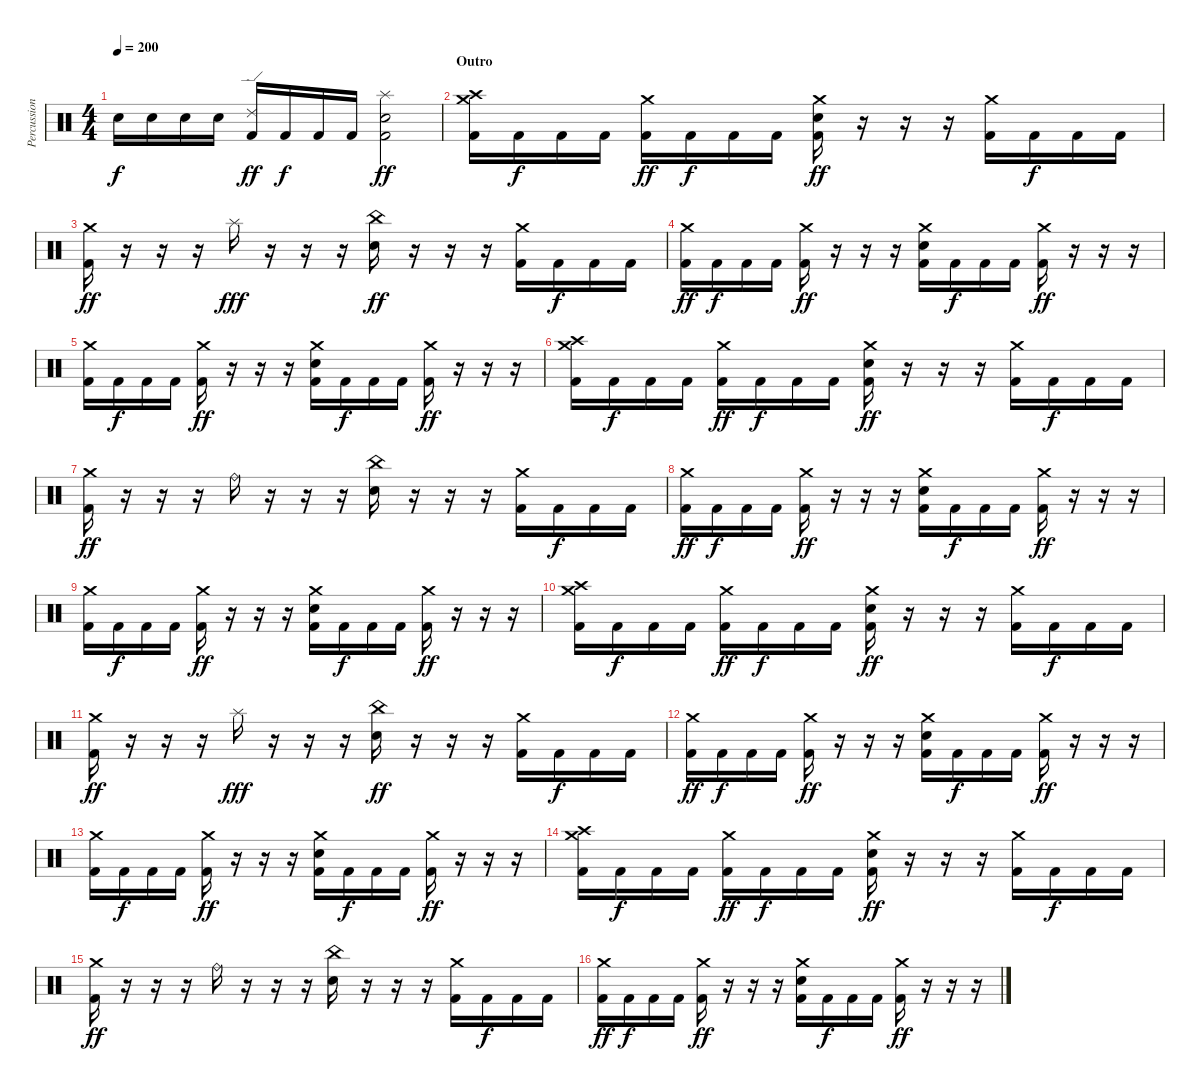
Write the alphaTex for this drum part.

\track ("Percussions" "Percussion") {instrument percussion}
\staff {score}
\articulation defaults
\ts (4 4)
\tempo 200
\clef neutral
\ks c "Electric Snare (hit)".16{dy f} "Electric Snare (hit)".16 "Electric Snare (hit)".16 "Electric Snare (hit)".16
("Ride (edge) 2" "Kick (hit) 2").16{dy ff} "Kick (hit) 2".16{dy f} "Kick (hit) 2".16 "Kick (hit) 2".16 ("Splash (hit)" "Electric Snare (hit)" "Kick (hit) 2").2{dy ff} |
\section ("" "Outro")
("Crash medium (hit)" "Crash high (hit)" "Kick (hit) 2").16 "Kick (hit) 2".16{dy f} "Kick (hit) 2".16 "Kick (hit) 2".16 ("Crash medium (hit)" "Kick (hit) 2").16{dy ff} "Kick (hit) 2".16{dy f} "Kick (hit) 2".16 "Kick (hit) 2".16 ("Crash medium (hit)" "Electric Snare (hit)" "Kick (hit) 2").16{dy ff} r.16 r.16 r.16 ("Crash medium (hit)" "Kick (hit) 2").16 "Kick (hit) 2".16{dy f} "Kick (hit) 2".16 "Kick (hit) 2".16 |
("Crash medium (hit)" "Kick (hit) 2").16{dy ff} r.16 r.16 r.16 "Splash (hit)".16{dy fff} r.16 r.16 r.16 ("China (hit)" "Electric Snare (hit)").16{dy ff} r.16 r.16 r.16 ("Crash medium (hit)" "Kick (hit) 2").16 "Kick (hit) 2".16{dy f} "Kick (hit) 2".16 "Kick (hit) 2".16 |
("Crash medium (hit)" "Kick (hit) 2").16{dy ff} "Kick (hit) 2".16{dy f} "Kick (hit) 2".16 "Kick (hit) 2".16 ("Crash medium (hit)" "Kick (hit) 2").16{dy ff} r.16 r.16 r.16 ("Crash medium (hit)" "Electric Snare (hit)" "Kick (hit) 2").16 "Kick (hit) 2".16{dy f} "Kick (hit) 2".16 "Kick (hit) 2".16 ("Crash medium (hit)" "Kick (hit) 2").16{dy ff} r.16 r.16 r.16 |
("Crash medium (hit)" "Kick (hit) 2").16 "Kick (hit) 2".16{dy f} "Kick (hit) 2".16 "Kick (hit) 2".16 ("Crash medium (hit)" "Kick (hit) 2").16{dy ff} r.16 r.16 r.16 ("Crash medium (hit)" "Electric Snare (hit)" "Kick (hit) 2").16 "Kick (hit) 2".16{dy f} "Kick (hit) 2".16 "Kick (hit) 2".16 ("Crash medium (hit)" "Kick (hit) 2").16{dy ff} r.16 r.16 r.16 |
("Crash medium (hit)" "Crash high (hit)" "Kick (hit) 2").16 "Kick (hit) 2".16{dy f} "Kick (hit) 2".16 "Kick (hit) 2".16 ("Crash medium (hit)" "Kick (hit) 2").16{dy ff} "Kick (hit) 2".16{dy f} "Kick (hit) 2".16 "Kick (hit) 2".16 ("Crash medium (hit)" "Electric Snare (hit)" "Kick (hit) 2").16{dy ff} r.16 r.16 r.16 ("Crash medium (hit)" "Kick (hit) 2").16 "Kick (hit) 2".16{dy f} "Kick (hit) 2".16 "Kick (hit) 2".16 |
("Crash medium (hit)" "Kick (hit) 2").16{dy ff} r.16 r.16 r.16 "Ride (bell)".16 r.16 r.16 r.16 ("China (hit)" "Electric Snare (hit)").16 r.16 r.16 r.16 ("Crash medium (hit)" "Kick (hit) 2").16 "Kick (hit) 2".16{dy f} "Kick (hit) 2".16 "Kick (hit) 2".16 |
("Crash medium (hit)" "Kick (hit) 2").16{dy ff} "Kick (hit) 2".16{dy f} "Kick (hit) 2".16 "Kick (hit) 2".16 ("Crash medium (hit)" "Kick (hit) 2").16{dy ff} r.16 r.16 r.16 ("Crash medium (hit)" "Electric Snare (hit)" "Kick (hit) 2").16 "Kick (hit) 2".16{dy f} "Kick (hit) 2".16 "Kick (hit) 2".16 ("Crash medium (hit)" "Kick (hit) 2").16{dy ff} r.16 r.16 r.16 |
("Crash medium (hit)" "Kick (hit) 2").16 "Kick (hit) 2".16{dy f} "Kick (hit) 2".16 "Kick (hit) 2".16 ("Crash medium (hit)" "Kick (hit) 2").16{dy ff} r.16 r.16 r.16 ("Crash medium (hit)" "Electric Snare (hit)" "Kick (hit) 2").16 "Kick (hit) 2".16{dy f} "Kick (hit) 2".16 "Kick (hit) 2".16 ("Crash medium (hit)" "Kick (hit) 2").16{dy ff} r.16 r.16 r.16 |
("Crash medium (hit)" "Crash high (hit)" "Kick (hit) 2").16 "Kick (hit) 2".16{dy f} "Kick (hit) 2".16 "Kick (hit) 2".16 ("Crash medium (hit)" "Kick (hit) 2").16{dy ff} "Kick (hit) 2".16{dy f} "Kick (hit) 2".16 "Kick (hit) 2".16 ("Crash medium (hit)" "Electric Snare (hit)" "Kick (hit) 2").16{dy ff} r.16 r.16 r.16 ("Crash medium (hit)" "Kick (hit) 2").16 "Kick (hit) 2".16{dy f} "Kick (hit) 2".16 "Kick (hit) 2".16 |
("Crash medium (hit)" "Kick (hit) 2").16{dy ff} r.16 r.16 r.16 "Splash (hit)".16{dy fff} r.16 r.16 r.16 ("China (hit)" "Electric Snare (hit)").16{dy ff} r.16 r.16 r.16 ("Crash medium (hit)" "Kick (hit) 2").16 "Kick (hit) 2".16{dy f} "Kick (hit) 2".16 "Kick (hit) 2".16 |
("Crash medium (hit)" "Kick (hit) 2").16{dy ff} "Kick (hit) 2".16{dy f} "Kick (hit) 2".16 "Kick (hit) 2".16 ("Crash medium (hit)" "Kick (hit) 2").16{dy ff} r.16 r.16 r.16 ("Crash medium (hit)" "Electric Snare (hit)" "Kick (hit) 2").16 "Kick (hit) 2".16{dy f} "Kick (hit) 2".16 "Kick (hit) 2".16 ("Crash medium (hit)" "Kick (hit) 2").16{dy ff} r.16 r.16 r.16 |
("Crash medium (hit)" "Kick (hit) 2").16 "Kick (hit) 2".16{dy f} "Kick (hit) 2".16 "Kick (hit) 2".16 ("Crash medium (hit)" "Kick (hit) 2").16{dy ff} r.16 r.16 r.16 ("Crash medium (hit)" "Electric Snare (hit)" "Kick (hit) 2").16 "Kick (hit) 2".16{dy f} "Kick (hit) 2".16 "Kick (hit) 2".16 ("Crash medium (hit)" "Kick (hit) 2").16{dy ff} r.16 r.16 r.16 |
("Crash medium (hit)" "Crash high (hit)" "Kick (hit) 2").16 "Kick (hit) 2".16{dy f} "Kick (hit) 2".16 "Kick (hit) 2".16 ("Crash medium (hit)" "Kick (hit) 2").16{dy ff} "Kick (hit) 2".16{dy f} "Kick (hit) 2".16 "Kick (hit) 2".16 ("Crash medium (hit)" "Electric Snare (hit)" "Kick (hit) 2").16{dy ff} r.16 r.16 r.16 ("Crash medium (hit)" "Kick (hit) 2").16 "Kick (hit) 2".16{dy f} "Kick (hit) 2".16 "Kick (hit) 2".16 |
("Crash medium (hit)" "Kick (hit) 2").16{dy ff} r.16 r.16 r.16 "Ride (bell)".16 r.16 r.16 r.16 ("China (hit)" "Electric Snare (hit)").16 r.16 r.16 r.16 ("Crash medium (hit)" "Kick (hit) 2").16 "Kick (hit) 2".16{dy f} "Kick (hit) 2".16 "Kick (hit) 2".16 |
("Crash medium (hit)" "Kick (hit) 2").16{dy ff} "Kick (hit) 2".16{dy f} "Kick (hit) 2".16 "Kick (hit) 2".16 ("Crash medium (hit)" "Kick (hit) 2").16{dy ff} r.16 r.16 r.16 ("Crash medium (hit)" "Electric Snare (hit)" "Kick (hit) 2").16 "Kick (hit) 2".16{dy f} "Kick (hit) 2".16 "Kick (hit) 2".16 ("Crash medium (hit)" "Kick (hit) 2").16{dy ff} r.16 r.16 r.16
